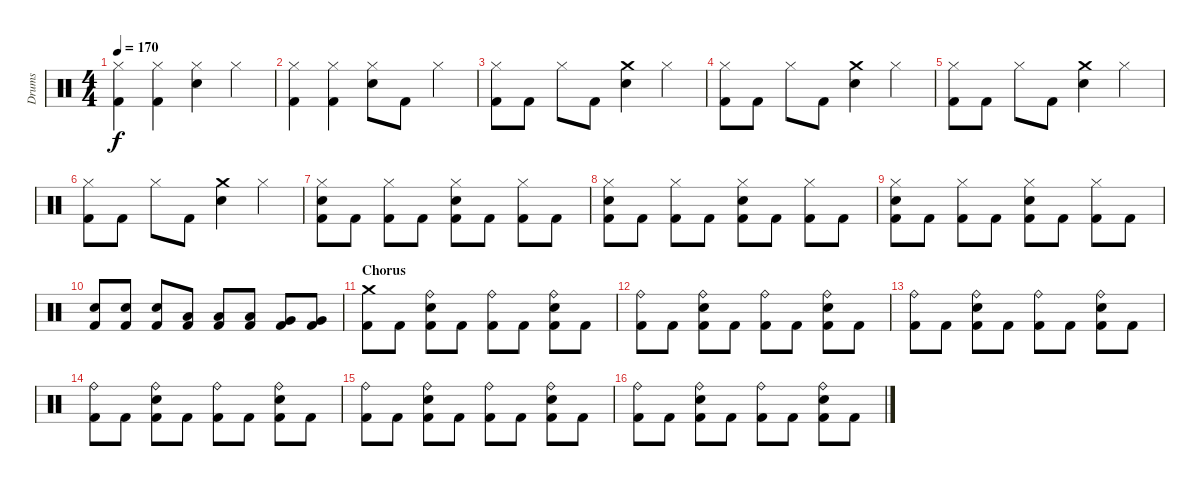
\track ("Drums" "Drums") {instrument percussion}
\staff {score}
\articulation defaults
\ts (4 4)
\tempo 170
\clef neutral
\ks c
("Hi-Hat (closed)" "Kick (hit) 2").4{dy f} ("Hi-Hat (closed)" "Kick (hit) 2").4 ("Hi-Hat (closed)" "Electric Snare (hit)").4 "Hi-Hat (closed)".4 |
("Hi-Hat (closed)" "Kick (hit) 2").4 ("Hi-Hat (closed)" "Kick (hit) 2").4 ("Hi-Hat (closed)" "Electric Snare (hit)").8 "Kick (hit) 2".8 "Hi-Hat (closed)".4 |
("Hi-Hat (closed)" "Kick (hit) 2").8 "Kick (hit) 2".8 "Hi-Hat (closed)".8 "Kick (hit) 2".8 ("Crash medium (hit)" "Electric Snare (hit)").4 "Hi-Hat (closed)".4 |
("Hi-Hat (closed)" "Kick (hit) 2").8 "Kick (hit) 2".8 "Hi-Hat (closed)".8 "Kick (hit) 2".8 ("Crash medium (hit)" "Electric Snare (hit)").4 "Hi-Hat (closed)".4 |
("Hi-Hat (closed)" "Kick (hit) 2").8 "Kick (hit) 2".8 "Hi-Hat (closed)".8 "Kick (hit) 2".8 ("Crash medium (hit)" "Electric Snare (hit)").4 "Hi-Hat (closed)".4 |
("Hi-Hat (closed)" "Kick (hit) 2").8 "Kick (hit) 2".8 "Hi-Hat (closed)".8 "Kick (hit) 2".8 ("Crash medium (hit)" "Electric Snare (hit)").4 "Hi-Hat (closed)".4 |
("Hi-Hat (closed)" "Electric Snare (hit)" "Kick (hit) 2").8 "Kick (hit) 2".8 ("Hi-Hat (closed)" "Kick (hit) 2").8 "Kick (hit) 2".8 ("Hi-Hat (closed)" "Electric Snare (hit)" "Kick (hit) 2").8 "Kick (hit) 2".8 ("Hi-Hat (closed)" "Kick (hit) 2").8 "Kick (hit) 2".8 |
("Hi-Hat (closed)" "Electric Snare (hit)" "Kick (hit) 2").8 "Kick (hit) 2".8 ("Hi-Hat (closed)" "Kick (hit) 2").8 "Kick (hit) 2".8 ("Hi-Hat (closed)" "Electric Snare (hit)" "Kick (hit) 2").8 "Kick (hit) 2".8 ("Hi-Hat (closed)" "Kick (hit) 2").8 "Kick (hit) 2".8 |
("Hi-Hat (closed)" "Electric Snare (hit)" "Kick (hit) 2").8 "Kick (hit) 2".8 ("Hi-Hat (closed)" "Kick (hit) 2").8 "Kick (hit) 2".8 ("Hi-Hat (closed)" "Electric Snare (hit)" "Kick (hit) 2").8 "Kick (hit) 2".8 ("Hi-Hat (closed)" "Kick (hit) 2").8 "Kick (hit) 2".8 |
("Electric Snare (hit)" "Kick (hit) 2").8 ("Electric Snare (hit)" "Kick (hit) 2").8 ("Electric Snare (hit)" "Kick (hit) 2").8 ("Low Tom (hit)" "Kick (hit) 2").8 ("Low Tom (hit)" "Kick (hit) 2").8 ("Low Tom (hit)" "Kick (hit) 2").8 ("Very Low Tom (hit)" "Kick (hit) 2").8 ("Very Low Tom (hit)" "Kick (hit) 2").8 |
\section ("" "Chorus")
("Crash medium (hit)" "Kick (hit) 2").8 "Kick (hit) 2".8 ("Ride (bell)" "Electric Snare (hit)" "Kick (hit) 2").8 "Kick (hit) 2".8 ("Ride (bell)" "Kick (hit) 2").8 "Kick (hit) 2".8 ("Ride (bell)" "Electric Snare (hit)" "Kick (hit) 2").8 "Kick (hit) 2".8 |
("Ride (bell)" "Kick (hit) 2").8 "Kick (hit) 2".8 ("Ride (bell)" "Electric Snare (hit)" "Kick (hit) 2").8 "Kick (hit) 2".8 ("Ride (bell)" "Kick (hit) 2").8 "Kick (hit) 2".8 ("Ride (bell)" "Electric Snare (hit)" "Kick (hit) 2").8 "Kick (hit) 2".8 |
("Ride (bell)" "Kick (hit) 2").8 "Kick (hit) 2".8 ("Ride (bell)" "Electric Snare (hit)" "Kick (hit) 2").8 "Kick (hit) 2".8 ("Ride (bell)" "Kick (hit) 2").8 "Kick (hit) 2".8 ("Ride (bell)" "Electric Snare (hit)" "Kick (hit) 2").8 "Kick (hit) 2".8 |
("Ride (bell)" "Kick (hit) 2").8 "Kick (hit) 2".8 ("Ride (bell)" "Electric Snare (hit)" "Kick (hit) 2").8 "Kick (hit) 2".8 ("Ride (bell)" "Kick (hit) 2").8 "Kick (hit) 2".8 ("Ride (bell)" "Electric Snare (hit)" "Kick (hit) 2").8 "Kick (hit) 2".8 |
("Ride (bell)" "Kick (hit) 2").8 "Kick (hit) 2".8 ("Ride (bell)" "Electric Snare (hit)" "Kick (hit) 2").8 "Kick (hit) 2".8 ("Ride (bell)" "Kick (hit) 2").8 "Kick (hit) 2".8 ("Ride (bell)" "Electric Snare (hit)" "Kick (hit) 2").8 "Kick (hit) 2".8 |
("Ride (bell)" "Kick (hit) 2").8 "Kick (hit) 2".8 ("Ride (bell)" "Electric Snare (hit)" "Kick (hit) 2").8 "Kick (hit) 2".8 ("Ride (bell)" "Kick (hit) 2").8 "Kick (hit) 2".8 ("Ride (bell)" "Electric Snare (hit)" "Kick (hit) 2").8 "Kick (hit) 2".8
